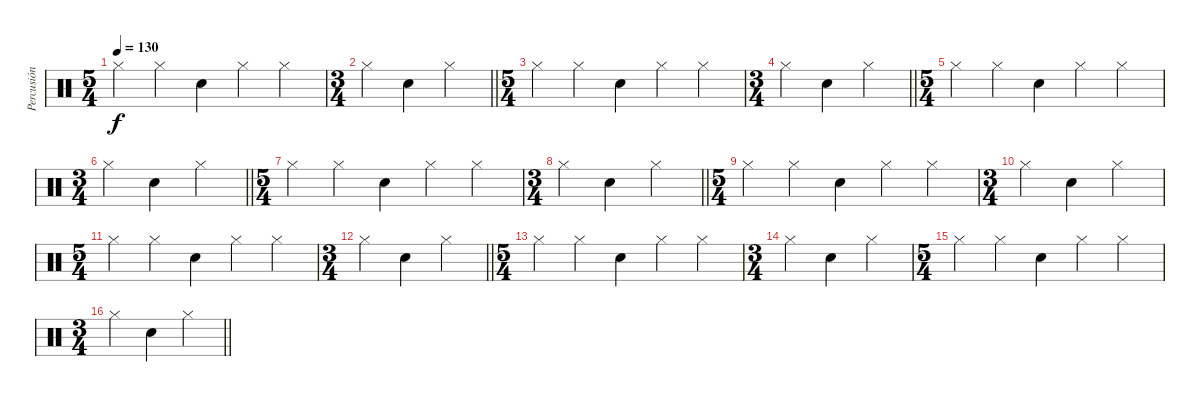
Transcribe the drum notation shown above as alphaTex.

\track ("Percusión" "Percusión") {instrument percussion}
\staff {score}
\articulation defaults
\ts (5 4)
\tempo 130
\clef neutral
\ks c "Hi-Hat (closed)".4{dy f} "Hi-Hat (closed)".4 "Snare (hit) 2".4 "Hi-Hat (closed)".4 "Hi-Hat (closed)".4
|
\ts (3 4)
\barLineRight lightlight "Hi-Hat (closed)".4 "Snare (hit) 2".4 "Hi-Hat (closed)".4
|
\ts (5 4)
"Hi-Hat (closed)".4 "Hi-Hat (closed)".4 "Snare (hit) 2".4 "Hi-Hat (closed)".4 "Hi-Hat (closed)".4 |
\ts (3 4)
\barLineRight lightlight "Hi-Hat (closed)".4 "Snare (hit) 2".4 "Hi-Hat (closed)".4
|
\ts (5 4)
"Hi-Hat (closed)".4 "Hi-Hat (closed)".4 "Snare (hit) 2".4 "Hi-Hat (closed)".4 "Hi-Hat (closed)".4 |
\ts (3 4)
\barLineRight lightlight "Hi-Hat (closed)".4 "Snare (hit) 2".4 "Hi-Hat (closed)".4
|
\ts (5 4)
"Hi-Hat (closed)".4 "Hi-Hat (closed)".4 "Snare (hit) 2".4 "Hi-Hat (closed)".4 "Hi-Hat (closed)".4 |
\ts (3 4)
\barLineRight lightlight "Hi-Hat (closed)".4 "Snare (hit) 2".4 "Hi-Hat (closed)".4
|
\ts (5 4)
"Hi-Hat (closed)".4 "Hi-Hat (closed)".4 "Snare (hit) 2".4 "Hi-Hat (closed)".4 "Hi-Hat (closed)".4 |
\ts (3 4)
"Hi-Hat (closed)".4 "Snare (hit) 2".4 "Hi-Hat (closed)".4 |
\ts (5 4)
"Hi-Hat (closed)".4 "Hi-Hat (closed)".4 "Snare (hit) 2".4 "Hi-Hat (closed)".4 "Hi-Hat (closed)".4 |
\ts (3 4)
\barLineRight lightlight "Hi-Hat (closed)".4 "Snare (hit) 2".4 "Hi-Hat (closed)".4
|
\ts (5 4)
"Hi-Hat (closed)".4 "Hi-Hat (closed)".4 "Snare (hit) 2".4 "Hi-Hat (closed)".4 "Hi-Hat (closed)".4 |
\ts (3 4)
"Hi-Hat (closed)".4 "Snare (hit) 2".4 "Hi-Hat (closed)".4 |
\ts (5 4)
"Hi-Hat (closed)".4 "Hi-Hat (closed)".4 "Snare (hit) 2".4 "Hi-Hat (closed)".4 "Hi-Hat (closed)".4 |
\ts (3 4)
\barLineRight lightlight "Hi-Hat (closed)".4 "Snare (hit) 2".4 "Hi-Hat (closed)".4
